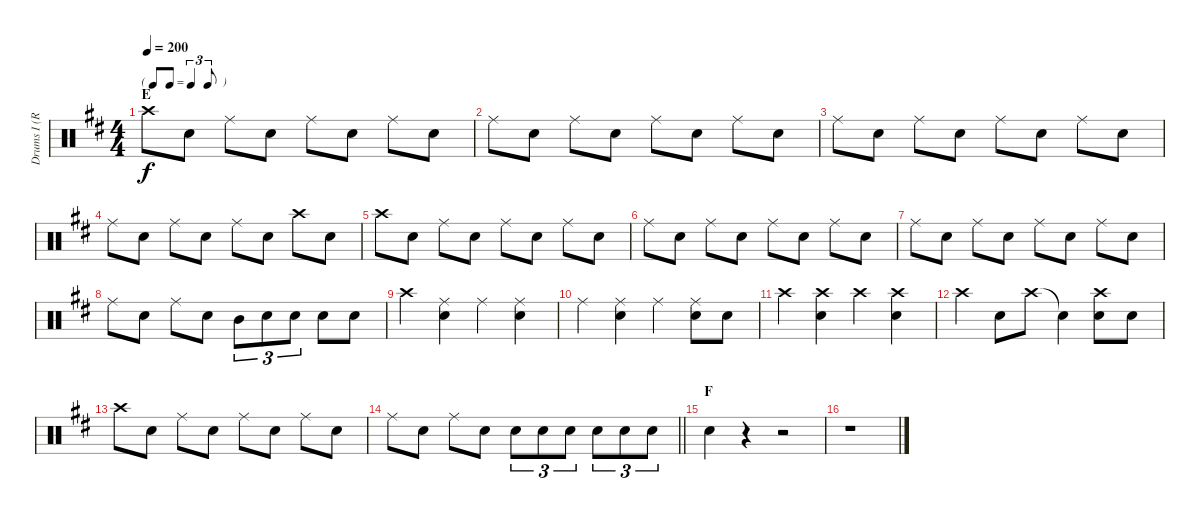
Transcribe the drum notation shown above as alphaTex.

\track ("Drums I (Ruka)" "Drums I (R") {instrument percussion}
\staff {score}
\articulation defaults
\ts (4 4)
\tf triplet8th
\section ("" "E")
\tempo 200
\clef neutral
\ks d "Crash high (hit)".8{dy f} "Snare (hit) 2".8 "Ride (middle)".8 "Snare (hit) 2".8 "Ride (middle)".8 "Snare (hit) 2".8 "Ride (middle)".8 "Snare (hit) 2".8
|
"Ride (middle)".8 "Snare (hit) 2".8 "Ride (middle)".8 "Snare (hit) 2".8 "Ride (middle)".8 "Snare (hit) 2".8 "Ride (middle)".8 "Snare (hit) 2".8 |
"Ride (middle)".8 "Snare (hit) 2".8 "Ride (middle)".8 "Snare (hit) 2".8 "Ride (middle)".8 "Snare (hit) 2".8 "Ride (middle)".8 "Snare (hit) 2".8 |
"Ride (middle)".8 "Snare (hit) 2".8 "Ride (middle)".8 "Snare (hit) 2".8 "Ride (middle)".8 "Snare (hit) 2".8 "Crash high (hit)".8 "Snare (hit) 2".8 |
"Crash high (hit)".8 "Snare (hit) 2".8 "Ride (middle)".8 "Snare (hit) 2".8 "Ride (middle)".8 "Snare (hit) 2".8 "Ride (middle)".8 "Snare (hit) 2".8 |
"Ride (middle)".8 "Snare (hit) 2".8 "Ride (middle)".8 "Snare (hit) 2".8 "Ride (middle)".8 "Snare (hit) 2".8 "Ride (middle)".8 "Snare (hit) 2".8 |
"Ride (middle)".8 "Snare (hit) 2".8 "Ride (middle)".8 "Snare (hit) 2".8 "Ride (middle)".8 "Snare (hit) 2".8 "Ride (middle)".8 "Snare (hit) 2".8 |
"Ride (middle)".8 "Snare (hit) 2".8 "Ride (middle)".8 "Snare (hit) 2".8 "Mid Tom (hit)".8{tu (3 2)} "Snare (hit) 2".8{tu (3 2)} "Snare (hit) 2".8{tu (3 2)} "Snare (hit) 2".8 "Snare (hit) 2".8 |
"Crash high (hit)".4 ("Ride (middle)" "Snare (hit) 2").4 "Ride (middle)".4 ("Ride (middle)" "Snare (hit) 2").4 |
"Ride (middle)".4 ("Ride (middle)" "Snare (hit) 2").4 "Ride (middle)".4 ("Ride (middle)" "Snare (hit) 2").8 "Snare (hit) 2".8 |
"Crash high (hit)".4 ("Crash high (hit)" "Snare (hit) 2").4 "Crash high (hit)".4 ("Crash high (hit)" "Snare (hit) 2").4 |
"Crash high (hit)".4 "Snare (hit) 2".8 "Crash high (hit)".8 "Snare (hit)"{t}.4 ("Crash high (hit)" "Snare (hit) 2").8 "Snare (hit) 2".8 |
"Crash high (hit)".8 "Snare (hit) 2".8 "Ride (middle)".8 "Snare (hit) 2".8 "Ride (middle)".8 "Snare (hit) 2".8 "Ride (middle)".8 "Snare (hit) 2".8 |
\barLineRight lightlight "Ride (middle)".8 "Snare (hit) 2".8 "Ride (middle)".8 "Snare (hit) 2".8 "Snare (hit) 2".8{tu (3 2)} "Snare (hit) 2".8{tu (3 2)} "Snare (hit) 2".8{tu (3 2)} "Snare (hit) 2".8{tu (3 2)} "Snare (hit) 2".8{tu (3 2)} "Snare (hit) 2".8{tu (3 2)}
|
\section ("" "F")
"Snare (hit) 2".4 r.4 r.2 |
r.1
